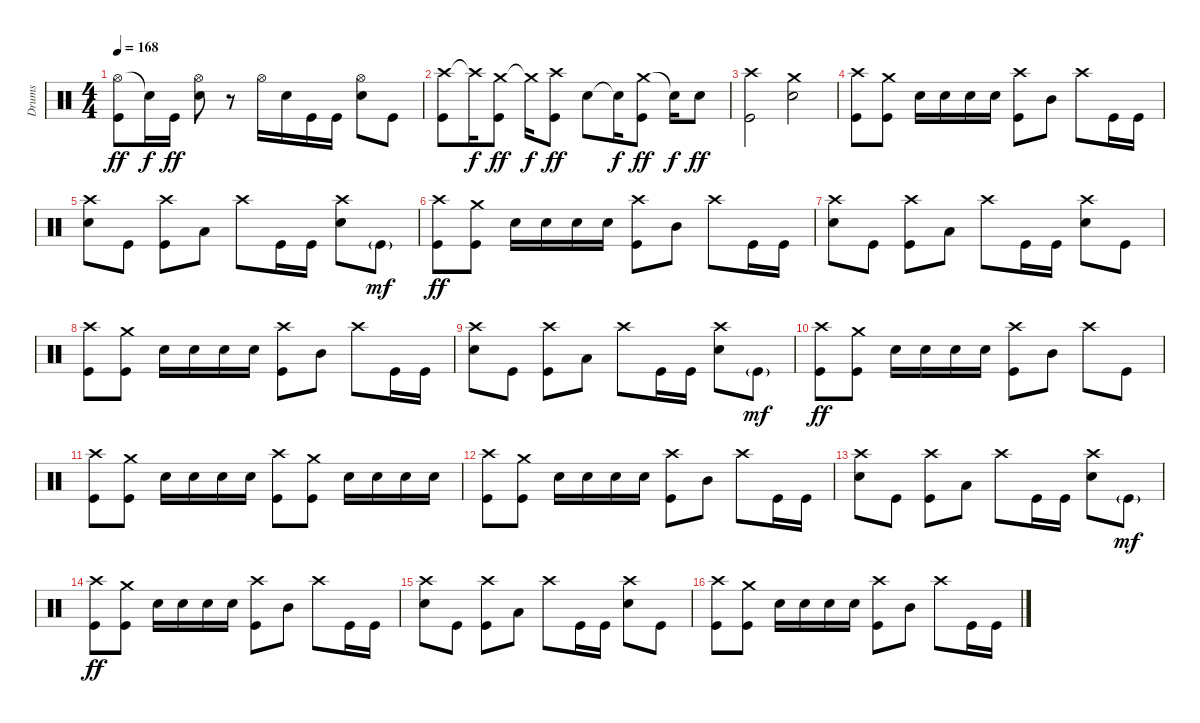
\track ("Drums" "Drums") {instrument percussion}
\staff {score}
\articulation defaults
\ts (4 4)
\tempo 168
\clef neutral
\ks c
("Hi-Hat (open)" "Kick (hit)").8{dy ff} "Snare (hit)"{t}.16{dy f} "Kick (hit)".16{dy ff} ("Hi-Hat (open)" "Snare (hit) 2").8 r.8 "Hi-Hat (open)".16 "Snare (hit) 2".16 "Kick (hit)".16 "Kick (hit)".16 ("Hi-Hat (open)" "Snare (hit) 2").8 "Kick (hit)".8 |
("Crash high (hit)" "Kick (hit)").8 "Crash high (hit)"{t}.16{dy f} ("Crash medium (hit)" "Kick (hit)").8{dy ff} "Crash medium (hit)"{t}.16{dy f} ("Crash high (hit)" "Kick (hit)").8{dy ff} "Snare (hit) 2".8 "Snare (hit)"{t}.16{dy f} ("Crash medium (hit)" "Kick (hit)").8{dy ff} "Snare (hit)"{t}.16{dy f} "Snare (hit) 2".8{dy ff} |
("Crash high (hit)" "Kick (hit)").2 ("Crash medium (hit)" "Snare (hit) 2").2 |
("Crash high (hit)" "Kick (hit)").8 ("Crash medium (hit)" "Kick (hit)").8 "Snare (hit) 2".16 "Snare (hit) 2".16 "Snare (hit) 2".16 "Snare (hit) 2".16 ("Crash high (hit)" "Kick (hit)").8 "Mid Tom (hit)".8 "Crash high (hit)".8 "Kick (hit)".16 "Kick (hit)".16 |
("Crash high (hit)" "Snare (hit) 2").8 "Kick (hit)".8 ("Crash high (hit)" "Kick (hit)").8 "Low Floor Tom (hit)".8 "Crash high (hit)".8 "Kick (hit)".16 "Kick (hit)".16 ("Crash high (hit)" "Snare (hit) 2").8 "Kick (hit)"{g}.8{dy mf} |
("Crash high (hit)" "Kick (hit)").8{dy ff} ("Crash medium (hit)" "Kick (hit)").8 "Snare (hit) 2".16 "Snare (hit) 2".16 "Snare (hit) 2".16 "Snare (hit) 2".16 ("Crash high (hit)" "Kick (hit)").8 "Mid Tom (hit)".8 "Crash high (hit)".8 "Kick (hit)".16 "Kick (hit)".16 |
("Crash high (hit)" "Snare (hit) 2").8 "Kick (hit)".8 ("Crash high (hit)" "Kick (hit)").8 "Low Floor Tom (hit)".8 "Crash high (hit)".8 "Kick (hit)".16 "Kick (hit)".16 ("Crash high (hit)" "Snare (hit) 2").8 "Kick (hit)".8 |
("Crash high (hit)" "Kick (hit)").8 ("Crash medium (hit)" "Kick (hit)").8 "Snare (hit) 2".16 "Snare (hit) 2".16 "Snare (hit) 2".16 "Snare (hit) 2".16 ("Crash high (hit)" "Kick (hit)").8 "Mid Tom (hit)".8 "Crash high (hit)".8 "Kick (hit)".16 "Kick (hit)".16 |
("Crash high (hit)" "Snare (hit) 2").8 "Kick (hit)".8 ("Crash high (hit)" "Kick (hit)").8 "Low Floor Tom (hit)".8 "Crash high (hit)".8 "Kick (hit)".16 "Kick (hit)".16 ("Crash high (hit)" "Snare (hit) 2").8 "Kick (hit)"{g}.8{dy mf} |
("Crash high (hit)" "Kick (hit)").8{dy ff} ("Crash medium (hit)" "Kick (hit)").8 "Snare (hit) 2".16 "Snare (hit) 2".16 "Snare (hit) 2".16 "Snare (hit) 2".16 ("Crash high (hit)" "Kick (hit)").8 "Mid Tom (hit)".8 "Crash high (hit)".8 "Kick (hit)".8 |
("Crash high (hit)" "Kick (hit)").8 ("Crash medium (hit)" "Kick (hit)").8 "Snare (hit) 2".16 "Snare (hit) 2".16 "Snare (hit) 2".16 "Snare (hit) 2".16 ("Crash high (hit)" "Kick (hit)").8 ("Crash medium (hit)" "Kick (hit)").8 "Snare (hit) 2".16 "Snare (hit) 2".16 "Snare (hit) 2".16 "Snare (hit) 2".16 |
("Crash high (hit)" "Kick (hit)").8 ("Crash medium (hit)" "Kick (hit)").8 "Snare (hit) 2".16 "Snare (hit) 2".16 "Snare (hit) 2".16 "Snare (hit) 2".16 ("Crash high (hit)" "Kick (hit)").8 "Mid Tom (hit)".8 "Crash high (hit)".8 "Kick (hit)".16 "Kick (hit)".16 |
("Crash high (hit)" "Snare (hit) 2").8 "Kick (hit)".8 ("Crash high (hit)" "Kick (hit)").8 "Low Floor Tom (hit)".8 "Crash high (hit)".8 "Kick (hit)".16 "Kick (hit)".16 ("Crash high (hit)" "Snare (hit) 2").8 "Kick (hit)"{g}.8{dy mf} |
("Crash high (hit)" "Kick (hit)").8{dy ff} ("Crash medium (hit)" "Kick (hit)").8 "Snare (hit) 2".16 "Snare (hit) 2".16 "Snare (hit) 2".16 "Snare (hit) 2".16 ("Crash high (hit)" "Kick (hit)").8 "Mid Tom (hit)".8 "Crash high (hit)".8 "Kick (hit)".16 "Kick (hit)".16 |
("Crash high (hit)" "Snare (hit) 2").8 "Kick (hit)".8 ("Crash high (hit)" "Kick (hit)").8 "Low Floor Tom (hit)".8 "Crash high (hit)".8 "Kick (hit)".16 "Kick (hit)".16 ("Crash high (hit)" "Snare (hit) 2").8 "Kick (hit)".8 |
("Crash high (hit)" "Kick (hit)").8 ("Crash medium (hit)" "Kick (hit)").8 "Snare (hit) 2".16 "Snare (hit) 2".16 "Snare (hit) 2".16 "Snare (hit) 2".16 ("Crash high (hit)" "Kick (hit)").8 "Mid Tom (hit)".8 "Crash high (hit)".8 "Kick (hit)".16 "Kick (hit)".16
